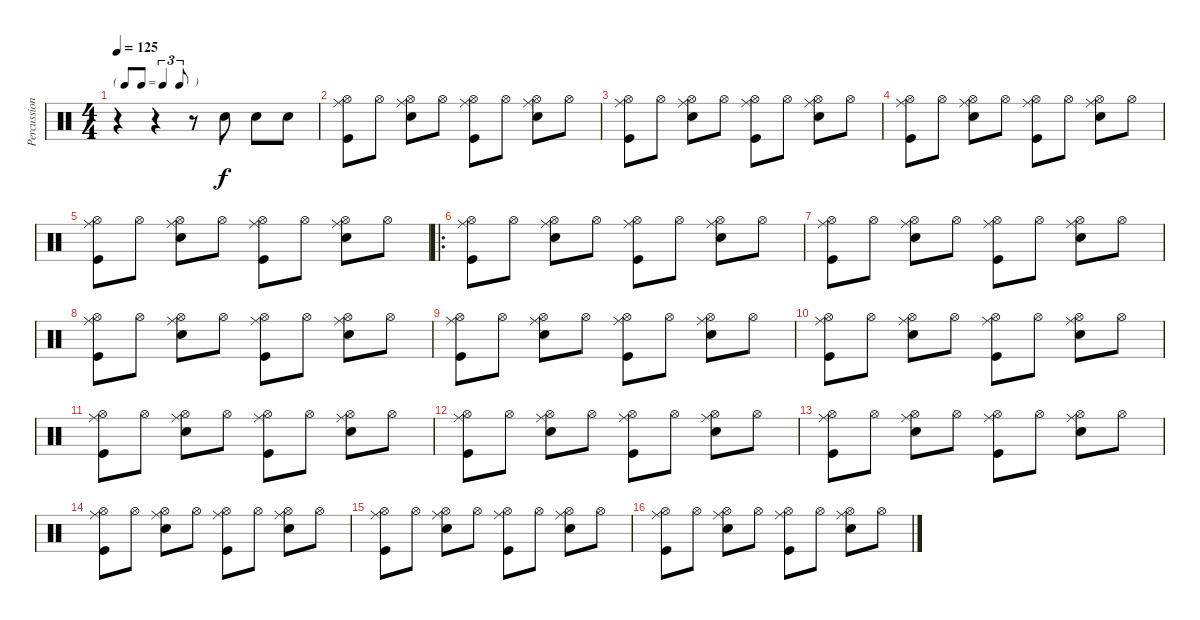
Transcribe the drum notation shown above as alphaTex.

\track ("Percussion" "Percussion") {instrument percussion}
\staff {score}
\articulation defaults
\ts (4 4)
\tf triplet8th
\tempo 125
\clef neutral
\ks c
r.4{dy f} r.4 r.8 "Snare (hit) 2".8 "Snare (hit) 2".8 "Snare (hit) 2".8 |
("Hi-Hat (open)" "Ride (middle)" "Kick (hit)").8 "Hi-Hat (open)".8 ("Hi-Hat (open)" "Ride (middle)" "Snare (hit) 2").8 "Hi-Hat (open)".8 ("Hi-Hat (open)" "Ride (middle)" "Kick (hit)").8 "Hi-Hat (open)".8 ("Hi-Hat (open)" "Ride (middle)" "Snare (hit) 2").8 "Hi-Hat (open)".8 |
("Hi-Hat (open)" "Ride (middle)" "Kick (hit)").8 "Hi-Hat (open)".8 ("Hi-Hat (open)" "Ride (middle)" "Snare (hit) 2").8 "Hi-Hat (open)".8 ("Hi-Hat (open)" "Ride (middle)" "Kick (hit)").8 "Hi-Hat (open)".8 ("Hi-Hat (open)" "Ride (middle)" "Snare (hit) 2").8 "Hi-Hat (open)".8 |
("Hi-Hat (open)" "Ride (middle)" "Kick (hit)").8 "Hi-Hat (open)".8 ("Hi-Hat (open)" "Ride (middle)" "Snare (hit) 2").8 "Hi-Hat (open)".8 ("Hi-Hat (open)" "Ride (middle)" "Kick (hit)").8 "Hi-Hat (open)".8 ("Hi-Hat (open)" "Ride (middle)" "Snare (hit) 2").8 "Hi-Hat (open)".8 |
("Hi-Hat (open)" "Ride (middle)" "Kick (hit)").8 "Hi-Hat (open)".8 ("Hi-Hat (open)" "Ride (middle)" "Snare (hit) 2").8 "Hi-Hat (open)".8 ("Hi-Hat (open)" "Ride (middle)" "Kick (hit)").8 "Hi-Hat (open)".8 ("Hi-Hat (open)" "Ride (middle)" "Snare (hit) 2").8 "Hi-Hat (open)".8 |
\ro
("Hi-Hat (open)" "Ride (middle)" "Kick (hit)").8 "Hi-Hat (open)".8 ("Hi-Hat (open)" "Ride (middle)" "Snare (hit) 2").8 "Hi-Hat (open)".8 ("Hi-Hat (open)" "Ride (middle)" "Kick (hit)").8 "Hi-Hat (open)".8 ("Hi-Hat (open)" "Ride (middle)" "Snare (hit) 2").8 "Hi-Hat (open)".8 |
("Hi-Hat (open)" "Ride (middle)" "Kick (hit)").8 "Hi-Hat (open)".8 ("Hi-Hat (open)" "Ride (middle)" "Snare (hit) 2").8 "Hi-Hat (open)".8 ("Hi-Hat (open)" "Ride (middle)" "Kick (hit)").8 "Hi-Hat (open)".8 ("Hi-Hat (open)" "Ride (middle)" "Snare (hit) 2").8 "Hi-Hat (open)".8 |
("Hi-Hat (open)" "Ride (middle)" "Kick (hit)").8 "Hi-Hat (open)".8 ("Hi-Hat (open)" "Ride (middle)" "Snare (hit) 2").8 "Hi-Hat (open)".8 ("Hi-Hat (open)" "Ride (middle)" "Kick (hit)").8 "Hi-Hat (open)".8 ("Hi-Hat (open)" "Ride (middle)" "Snare (hit) 2").8 "Hi-Hat (open)".8 |
("Hi-Hat (open)" "Ride (middle)" "Kick (hit)").8 "Hi-Hat (open)".8 ("Hi-Hat (open)" "Ride (middle)" "Snare (hit) 2").8 "Hi-Hat (open)".8 ("Hi-Hat (open)" "Ride (middle)" "Kick (hit)").8 "Hi-Hat (open)".8 ("Hi-Hat (open)" "Ride (middle)" "Snare (hit) 2").8 "Hi-Hat (open)".8 |
("Hi-Hat (open)" "Ride (middle)" "Kick (hit)").8 "Hi-Hat (open)".8 ("Hi-Hat (open)" "Ride (middle)" "Snare (hit) 2").8 "Hi-Hat (open)".8 ("Hi-Hat (open)" "Ride (middle)" "Kick (hit)").8 "Hi-Hat (open)".8 ("Hi-Hat (open)" "Ride (middle)" "Snare (hit) 2").8 "Hi-Hat (open)".8 |
("Hi-Hat (open)" "Ride (middle)" "Kick (hit)").8 "Hi-Hat (open)".8 ("Hi-Hat (open)" "Ride (middle)" "Snare (hit) 2").8 "Hi-Hat (open)".8 ("Hi-Hat (open)" "Ride (middle)" "Kick (hit)").8 "Hi-Hat (open)".8 ("Hi-Hat (open)" "Ride (middle)" "Snare (hit) 2").8 "Hi-Hat (open)".8 |
("Hi-Hat (open)" "Ride (middle)" "Kick (hit)").8 "Hi-Hat (open)".8 ("Hi-Hat (open)" "Ride (middle)" "Snare (hit) 2").8 "Hi-Hat (open)".8 ("Hi-Hat (open)" "Ride (middle)" "Kick (hit)").8 "Hi-Hat (open)".8 ("Hi-Hat (open)" "Ride (middle)" "Snare (hit) 2").8 "Hi-Hat (open)".8 |
("Hi-Hat (open)" "Ride (middle)" "Kick (hit)").8 "Hi-Hat (open)".8 ("Hi-Hat (open)" "Ride (middle)" "Snare (hit) 2").8 "Hi-Hat (open)".8 ("Hi-Hat (open)" "Ride (middle)" "Kick (hit)").8 "Hi-Hat (open)".8 ("Hi-Hat (open)" "Ride (middle)" "Snare (hit) 2").8 "Hi-Hat (open)".8 |
("Hi-Hat (open)" "Ride (middle)" "Kick (hit)").8 "Hi-Hat (open)".8 ("Hi-Hat (open)" "Ride (middle)" "Snare (hit) 2").8 "Hi-Hat (open)".8 ("Hi-Hat (open)" "Ride (middle)" "Kick (hit)").8 "Hi-Hat (open)".8 ("Hi-Hat (open)" "Ride (middle)" "Snare (hit) 2").8 "Hi-Hat (open)".8 |
("Hi-Hat (open)" "Ride (middle)" "Kick (hit)").8 "Hi-Hat (open)".8 ("Hi-Hat (open)" "Ride (middle)" "Snare (hit) 2").8 "Hi-Hat (open)".8 ("Hi-Hat (open)" "Ride (middle)" "Kick (hit)").8 "Hi-Hat (open)".8 ("Hi-Hat (open)" "Ride (middle)" "Snare (hit) 2").8 "Hi-Hat (open)".8 |
("Hi-Hat (open)" "Ride (middle)" "Kick (hit)").8 "Hi-Hat (open)".8 ("Hi-Hat (open)" "Ride (middle)" "Snare (hit) 2").8 "Hi-Hat (open)".8 ("Hi-Hat (open)" "Ride (middle)" "Kick (hit)").8 "Hi-Hat (open)".8 ("Hi-Hat (open)" "Ride (middle)" "Snare (hit) 2").8 "Hi-Hat (open)".8
